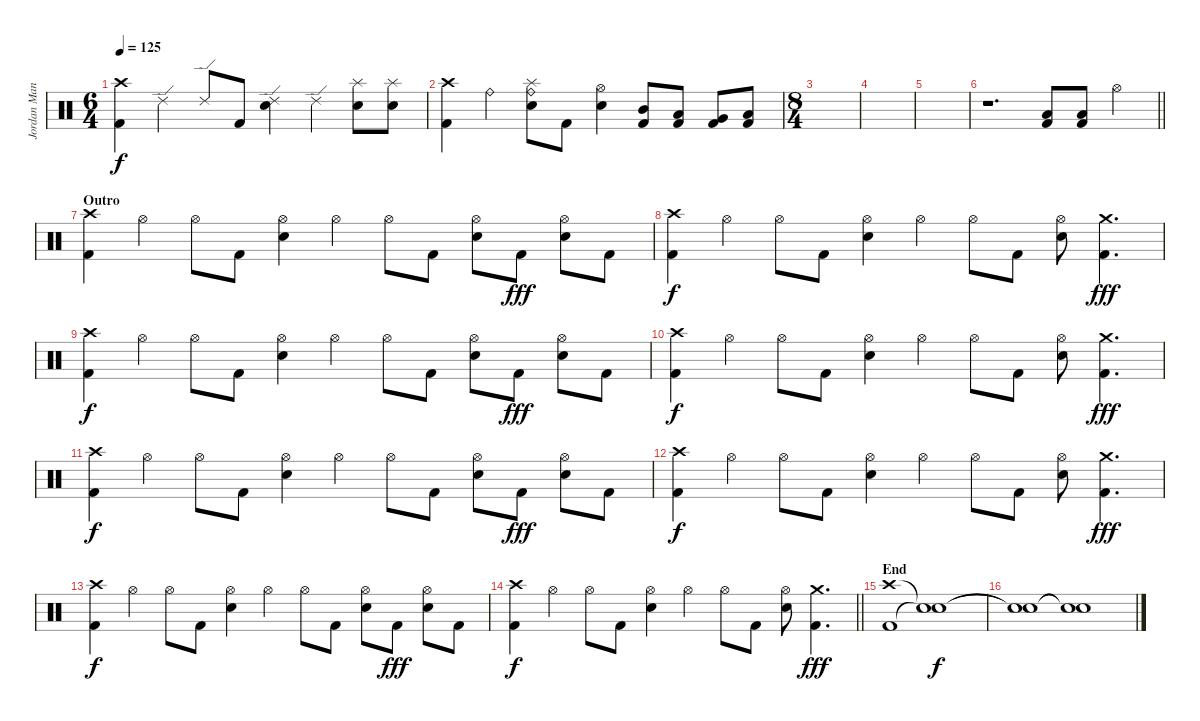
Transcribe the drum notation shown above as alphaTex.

\track ("Jordan Mancino" "Jordan Man") {instrument percussion}
\staff {score}
\articulation defaults
\ts (6 4)
\tempo 125
\clef neutral
\ks c
("Crash high (hit)" "Kick (hit) 2").4{dy f} "Ride (edge) 2".4 "Ride (edge) 2".8 "Kick (hit) 2".8 ("Ride (edge) 2" "Electric Snare (hit)").4 "Ride (edge) 2".4 ("Splash (hit)" "Electric Snare (hit)").8 ("Splash (hit)" "Electric Snare (hit)").8 |
("Crash high (hit)" "Kick (hit) 2").4 "Ride (bell)".4 ("Splash (hit)" "Ride (bell)" "Electric Snare (hit)").8 "Kick (hit) 2".8 ("Hi-Hat (open)" "Electric Snare (hit)").4 ("Mid Tom (hit)" "Kick (hit) 2").8 ("Low Tom (hit)" "Kick (hit) 2").8 ("Very Low Tom (hit)" "Kick (hit) 2").8 ("Low Floor Tom (hit)" "Kick (hit) 2").8 |
\ts (8 4)
|
|
|
\barLineRight lightlight
r.1{d} ("Low Floor Tom (hit)" "Kick (hit) 2").8 ("Low Floor Tom (hit)" "Kick (hit) 2").8 "Hi-Hat (open)".4 |
\section ("" "Outro")
("Crash high (hit)" "Kick (hit) 2").4 "Hi-Hat (open)".4 "Hi-Hat (open)".8 "Kick (hit) 2".8 ("Hi-Hat (open)" "Electric Snare (hit)").4 "Hi-Hat (open)".4 "Hi-Hat (open)".8 "Kick (hit) 2".8 ("Hi-Hat (open)" "Electric Snare (hit)").8 "Kick (hit) 2".8{dy fff} ("Hi-Hat (open)" "Electric Snare (hit)").8 "Kick (hit) 2".8 |
("Crash high (hit)" "Kick (hit) 2").4{dy f} "Hi-Hat (open)".4 "Hi-Hat (open)".8 "Kick (hit) 2".8 ("Hi-Hat (open)" "Electric Snare (hit)").4 "Hi-Hat (open)".4 "Hi-Hat (open)".8 "Kick (hit) 2".8 ("Hi-Hat (open)" "Electric Snare (hit)").8 ("Crash medium (hit)" "Kick (hit) 2").4{d dy fff} |
("Crash high (hit)" "Kick (hit) 2").4{dy f} "Hi-Hat (open)".4 "Hi-Hat (open)".8 "Kick (hit) 2".8 ("Hi-Hat (open)" "Electric Snare (hit)").4 "Hi-Hat (open)".4 "Hi-Hat (open)".8 "Kick (hit) 2".8 ("Hi-Hat (open)" "Electric Snare (hit)").8 "Kick (hit) 2".8{dy fff} ("Hi-Hat (open)" "Electric Snare (hit)").8 "Kick (hit) 2".8 |
("Crash high (hit)" "Kick (hit) 2").4{dy f} "Hi-Hat (open)".4 "Hi-Hat (open)".8 "Kick (hit) 2".8 ("Hi-Hat (open)" "Electric Snare (hit)").4 "Hi-Hat (open)".4 "Hi-Hat (open)".8 "Kick (hit) 2".8 ("Hi-Hat (open)" "Electric Snare (hit)").8 ("Crash medium (hit)" "Kick (hit) 2").4{d dy fff} |
("Crash high (hit)" "Kick (hit) 2").4{dy f} "Hi-Hat (open)".4 "Hi-Hat (open)".8 "Kick (hit) 2".8 ("Hi-Hat (open)" "Electric Snare (hit)").4 "Hi-Hat (open)".4 "Hi-Hat (open)".8 "Kick (hit) 2".8 ("Hi-Hat (open)" "Electric Snare (hit)").8 "Kick (hit) 2".8{dy fff} ("Hi-Hat (open)" "Electric Snare (hit)").8 "Kick (hit) 2".8 |
("Crash high (hit)" "Kick (hit) 2").4{dy f} "Hi-Hat (open)".4 "Hi-Hat (open)".8 "Kick (hit) 2".8 ("Hi-Hat (open)" "Electric Snare (hit)").4 "Hi-Hat (open)".4 "Hi-Hat (open)".8 "Kick (hit) 2".8 ("Hi-Hat (open)" "Electric Snare (hit)").8 ("Crash medium (hit)" "Kick (hit) 2").4{d dy fff} |
("Crash high (hit)" "Kick (hit) 2").4{dy f} "Hi-Hat (open)".4 "Hi-Hat (open)".8 "Kick (hit) 2".8 ("Hi-Hat (open)" "Electric Snare (hit)").4 "Hi-Hat (open)".4 "Hi-Hat (open)".8 "Kick (hit) 2".8 ("Hi-Hat (open)" "Electric Snare (hit)").8 "Kick (hit) 2".8{dy fff} ("Hi-Hat (open)" "Electric Snare (hit)").8 "Kick (hit) 2".8 |
\barLineRight lightlight
("Crash high (hit)" "Kick (hit) 2").4{dy f} "Hi-Hat (open)".4 "Hi-Hat (open)".8 "Kick (hit) 2".8 ("Hi-Hat (open)" "Electric Snare (hit)").4 "Hi-Hat (open)".4 "Hi-Hat (open)".8 "Kick (hit) 2".8 ("Hi-Hat (open)" "Electric Snare (hit)").8 ("Crash medium (hit)" "Kick (hit) 2").4{d dy fff} |
\section ("" "End")
("Crash high (hit)" "Kick (hit) 2").1 ("Snare (hit)"{t} "Snare (hit)"{t}).1{dy f} |
("Snare (hit)"{t} "Snare (hit)"{t}).1 ("Snare (hit)"{t} "Snare (hit)"{t}).1
